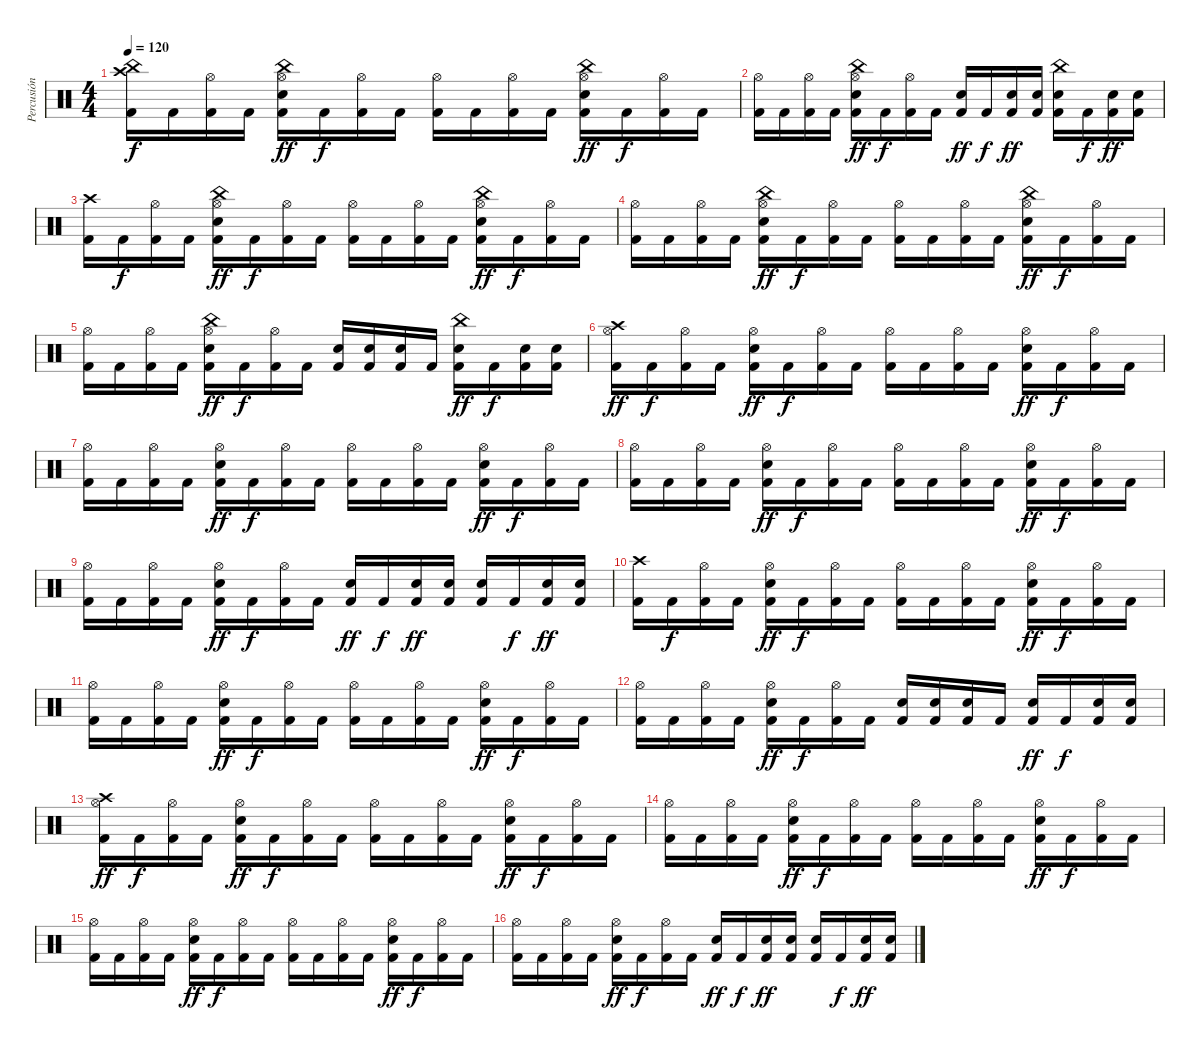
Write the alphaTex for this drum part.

\track ("Percusión" "Percusión") {instrument percussion}
\staff {score}
\articulation defaults
\ts (4 4)
\tempo 120
\clef neutral
\ks c
("Crash high (hit)" "China (hit)" "Kick (hit) 2").16{dy f} "Kick (hit) 2".16 ("Hi-Hat (open)" "Kick (hit) 2").16 "Kick (hit) 2".16 ("Hi-Hat (open)" "Electric Snare (hit)" "China (hit)" "Kick (hit) 2").16{dy ff} "Kick (hit) 2".16{dy f} ("Hi-Hat (open)" "Kick (hit) 2").16 "Kick (hit) 2".16 ("Hi-Hat (open)" "Kick (hit) 2").16 "Kick (hit) 2".16 ("Hi-Hat (open)" "Kick (hit) 2").16 "Kick (hit) 2".16 ("Hi-Hat (open)" "Electric Snare (hit)" "China (hit)" "Kick (hit) 2").16{dy ff} "Kick (hit) 2".16{dy f} ("Hi-Hat (open)" "Kick (hit) 2").16 "Kick (hit) 2".16 |
("Hi-Hat (open)" "Kick (hit) 2").16 "Kick (hit) 2".16 ("Hi-Hat (open)" "Kick (hit) 2").16 "Kick (hit) 2".16 ("Hi-Hat (open)" "Electric Snare (hit)" "China (hit)" "Kick (hit) 2").16{dy ff} "Kick (hit) 2".16{dy f} ("Hi-Hat (open)" "Kick (hit) 2").16 "Kick (hit) 2".16 ("Electric Snare (hit)" "Kick (hit) 2").16{dy ff} "Kick (hit) 2".16{dy f} ("Electric Snare (hit)" "Kick (hit) 2").16{dy ff} ("Electric Snare (hit)" "Kick (hit) 2").16 ("Electric Snare (hit)" "China (hit)" "Kick (hit) 2").16 "Kick (hit) 2".16{dy f} ("Electric Snare (hit)" "Kick (hit) 2").16{dy ff} ("Electric Snare (hit)" "Kick (hit) 2").16 |
("Crash high (hit)" "Kick (hit) 2").16 "Kick (hit) 2".16{dy f} ("Hi-Hat (open)" "Kick (hit) 2").16 "Kick (hit) 2".16 ("Hi-Hat (open)" "Electric Snare (hit)" "China (hit)" "Kick (hit) 2").16{dy ff} "Kick (hit) 2".16{dy f} ("Hi-Hat (open)" "Kick (hit) 2").16 "Kick (hit) 2".16 ("Hi-Hat (open)" "Kick (hit) 2").16 "Kick (hit) 2".16 ("Hi-Hat (open)" "Kick (hit) 2").16 "Kick (hit) 2".16 ("Hi-Hat (open)" "Electric Snare (hit)" "China (hit)" "Kick (hit) 2").16{dy ff} "Kick (hit) 2".16{dy f} ("Hi-Hat (open)" "Kick (hit) 2").16 "Kick (hit) 2".16 |
("Hi-Hat (open)" "Kick (hit) 2").16 "Kick (hit) 2".16 ("Hi-Hat (open)" "Kick (hit) 2").16 "Kick (hit) 2".16 ("Hi-Hat (open)" "Electric Snare (hit)" "China (hit)" "Kick (hit) 2").16{dy ff} "Kick (hit) 2".16{dy f} ("Hi-Hat (open)" "Kick (hit) 2").16 "Kick (hit) 2".16 ("Hi-Hat (open)" "Kick (hit) 2").16 "Kick (hit) 2".16 ("Hi-Hat (open)" "Kick (hit) 2").16 "Kick (hit) 2".16 ("Hi-Hat (open)" "Electric Snare (hit)" "China (hit)" "Kick (hit) 2").16{dy ff} "Kick (hit) 2".16{dy f} ("Hi-Hat (open)" "Kick (hit) 2").16 "Kick (hit) 2".16 |
("Hi-Hat (open)" "Kick (hit) 2").16 "Kick (hit) 2".16 ("Hi-Hat (open)" "Kick (hit) 2").16 "Kick (hit) 2".16 ("Hi-Hat (open)" "Electric Snare (hit)" "China (hit)" "Kick (hit) 2").16{dy ff} "Kick (hit) 2".16{dy f} ("Hi-Hat (open)" "Kick (hit) 2").16 "Kick (hit) 2".16 ("Electric Snare (hit)" "Kick (hit) 2").16 ("Electric Snare (hit)" "Kick (hit) 2").16 ("Electric Snare (hit)" "Kick (hit) 2").16 "Kick (hit) 2".16 ("Electric Snare (hit)" "China (hit)" "Kick (hit) 2").16{dy ff} "Kick (hit) 2".16{dy f} ("Electric Snare (hit)" "Kick (hit) 2").16 ("Electric Snare (hit)" "Kick (hit) 2").16 |
("Hi-Hat (open)" "Crash high (hit)" "Kick (hit) 2").16{dy ff} "Kick (hit) 2".16{dy f} ("Hi-Hat (open)" "Kick (hit) 2").16 "Kick (hit) 2".16 ("Hi-Hat (open)" "Electric Snare (hit)" "Kick (hit) 2").16{dy ff} "Kick (hit) 2".16{dy f} ("Hi-Hat (open)" "Kick (hit) 2").16 "Kick (hit) 2".16 ("Hi-Hat (open)" "Kick (hit) 2").16 "Kick (hit) 2".16 ("Hi-Hat (open)" "Kick (hit) 2").16 "Kick (hit) 2".16 ("Hi-Hat (open)" "Electric Snare (hit)" "Kick (hit) 2").16{dy ff} "Kick (hit) 2".16{dy f} ("Hi-Hat (open)" "Kick (hit) 2").16 "Kick (hit) 2".16 |
("Hi-Hat (open)" "Kick (hit) 2").16 "Kick (hit) 2".16 ("Hi-Hat (open)" "Kick (hit) 2").16 "Kick (hit) 2".16 ("Hi-Hat (open)" "Electric Snare (hit)" "Kick (hit) 2").16{dy ff} "Kick (hit) 2".16{dy f} ("Hi-Hat (open)" "Kick (hit) 2").16 "Kick (hit) 2".16 ("Hi-Hat (open)" "Kick (hit) 2").16 "Kick (hit) 2".16 ("Hi-Hat (open)" "Kick (hit) 2").16 "Kick (hit) 2".16 ("Hi-Hat (open)" "Electric Snare (hit)" "Kick (hit) 2").16{dy ff} "Kick (hit) 2".16{dy f} ("Hi-Hat (open)" "Kick (hit) 2").16 "Kick (hit) 2".16 |
("Hi-Hat (open)" "Kick (hit) 2").16 "Kick (hit) 2".16 ("Hi-Hat (open)" "Kick (hit) 2").16 "Kick (hit) 2".16 ("Hi-Hat (open)" "Electric Snare (hit)" "Kick (hit) 2").16{dy ff} "Kick (hit) 2".16{dy f} ("Hi-Hat (open)" "Kick (hit) 2").16 "Kick (hit) 2".16 ("Hi-Hat (open)" "Kick (hit) 2").16 "Kick (hit) 2".16 ("Hi-Hat (open)" "Kick (hit) 2").16 "Kick (hit) 2".16 ("Hi-Hat (open)" "Electric Snare (hit)" "Kick (hit) 2").16{dy ff} "Kick (hit) 2".16{dy f} ("Hi-Hat (open)" "Kick (hit) 2").16 "Kick (hit) 2".16 |
("Hi-Hat (open)" "Kick (hit) 2").16 "Kick (hit) 2".16 ("Hi-Hat (open)" "Kick (hit) 2").16 "Kick (hit) 2".16 ("Hi-Hat (open)" "Electric Snare (hit)" "Kick (hit) 2").16{dy ff} "Kick (hit) 2".16{dy f} ("Hi-Hat (open)" "Kick (hit) 2").16 "Kick (hit) 2".16 ("Electric Snare (hit)" "Kick (hit) 2").16{dy ff} "Kick (hit) 2".16{dy f} ("Electric Snare (hit)" "Kick (hit) 2").16{dy ff} ("Electric Snare (hit)" "Kick (hit) 2").16 ("Electric Snare (hit)" "Kick (hit) 2").16 "Kick (hit) 2".16{dy f} ("Electric Snare (hit)" "Kick (hit) 2").16{dy ff} ("Electric Snare (hit)" "Kick (hit) 2").16 |
("Crash high (hit)" "Kick (hit) 2").16 "Kick (hit) 2".16{dy f} ("Hi-Hat (open)" "Kick (hit) 2").16 "Kick (hit) 2".16 ("Hi-Hat (open)" "Electric Snare (hit)" "Kick (hit) 2").16{dy ff} "Kick (hit) 2".16{dy f} ("Hi-Hat (open)" "Kick (hit) 2").16 "Kick (hit) 2".16 ("Hi-Hat (open)" "Kick (hit) 2").16 "Kick (hit) 2".16 ("Hi-Hat (open)" "Kick (hit) 2").16 "Kick (hit) 2".16 ("Hi-Hat (open)" "Electric Snare (hit)" "Kick (hit) 2").16{dy ff} "Kick (hit) 2".16{dy f} ("Hi-Hat (open)" "Kick (hit) 2").16 "Kick (hit) 2".16 |
("Hi-Hat (open)" "Kick (hit) 2").16 "Kick (hit) 2".16 ("Hi-Hat (open)" "Kick (hit) 2").16 "Kick (hit) 2".16 ("Hi-Hat (open)" "Electric Snare (hit)" "Kick (hit) 2").16{dy ff} "Kick (hit) 2".16{dy f} ("Hi-Hat (open)" "Kick (hit) 2").16 "Kick (hit) 2".16 ("Hi-Hat (open)" "Kick (hit) 2").16 "Kick (hit) 2".16 ("Hi-Hat (open)" "Kick (hit) 2").16 "Kick (hit) 2".16 ("Hi-Hat (open)" "Electric Snare (hit)" "Kick (hit) 2").16{dy ff} "Kick (hit) 2".16{dy f} ("Hi-Hat (open)" "Kick (hit) 2").16 "Kick (hit) 2".16 |
("Hi-Hat (open)" "Kick (hit) 2").16 "Kick (hit) 2".16 ("Hi-Hat (open)" "Kick (hit) 2").16 "Kick (hit) 2".16 ("Hi-Hat (open)" "Electric Snare (hit)" "Kick (hit) 2").16{dy ff} "Kick (hit) 2".16{dy f} ("Hi-Hat (open)" "Kick (hit) 2").16 "Kick (hit) 2".16 ("Electric Snare (hit)" "Kick (hit) 2").16 ("Electric Snare (hit)" "Kick (hit) 2").16 ("Electric Snare (hit)" "Kick (hit) 2").16 "Kick (hit) 2".16 ("Electric Snare (hit)" "Kick (hit) 2").16{dy ff} "Kick (hit) 2".16{dy f} ("Electric Snare (hit)" "Kick (hit) 2").16 ("Electric Snare (hit)" "Kick (hit) 2").16 |
("Hi-Hat (open)" "Crash high (hit)" "Kick (hit) 2").16{dy ff} "Kick (hit) 2".16{dy f} ("Hi-Hat (open)" "Kick (hit) 2").16 "Kick (hit) 2".16 ("Hi-Hat (open)" "Electric Snare (hit)" "Kick (hit) 2").16{dy ff} "Kick (hit) 2".16{dy f} ("Hi-Hat (open)" "Kick (hit) 2").16 "Kick (hit) 2".16 ("Hi-Hat (open)" "Kick (hit) 2").16 "Kick (hit) 2".16 ("Hi-Hat (open)" "Kick (hit) 2").16 "Kick (hit) 2".16 ("Hi-Hat (open)" "Electric Snare (hit)" "Kick (hit) 2").16{dy ff} "Kick (hit) 2".16{dy f} ("Hi-Hat (open)" "Kick (hit) 2").16 "Kick (hit) 2".16 |
("Hi-Hat (open)" "Kick (hit) 2").16 "Kick (hit) 2".16 ("Hi-Hat (open)" "Kick (hit) 2").16 "Kick (hit) 2".16 ("Hi-Hat (open)" "Electric Snare (hit)" "Kick (hit) 2").16{dy ff} "Kick (hit) 2".16{dy f} ("Hi-Hat (open)" "Kick (hit) 2").16 "Kick (hit) 2".16 ("Hi-Hat (open)" "Kick (hit) 2").16 "Kick (hit) 2".16 ("Hi-Hat (open)" "Kick (hit) 2").16 "Kick (hit) 2".16 ("Hi-Hat (open)" "Electric Snare (hit)" "Kick (hit) 2").16{dy ff} "Kick (hit) 2".16{dy f} ("Hi-Hat (open)" "Kick (hit) 2").16 "Kick (hit) 2".16 |
("Hi-Hat (open)" "Kick (hit) 2").16 "Kick (hit) 2".16 ("Hi-Hat (open)" "Kick (hit) 2").16 "Kick (hit) 2".16 ("Hi-Hat (open)" "Electric Snare (hit)" "Kick (hit) 2").16{dy ff} "Kick (hit) 2".16{dy f} ("Hi-Hat (open)" "Kick (hit) 2").16 "Kick (hit) 2".16 ("Hi-Hat (open)" "Kick (hit) 2").16 "Kick (hit) 2".16 ("Hi-Hat (open)" "Kick (hit) 2").16 "Kick (hit) 2".16 ("Hi-Hat (open)" "Electric Snare (hit)" "Kick (hit) 2").16{dy ff} "Kick (hit) 2".16{dy f} ("Hi-Hat (open)" "Kick (hit) 2").16 "Kick (hit) 2".16 |
("Hi-Hat (open)" "Kick (hit) 2").16 "Kick (hit) 2".16 ("Hi-Hat (open)" "Kick (hit) 2").16 "Kick (hit) 2".16 ("Hi-Hat (open)" "Electric Snare (hit)" "Kick (hit) 2").16{dy ff} "Kick (hit) 2".16{dy f} ("Hi-Hat (open)" "Kick (hit) 2").16 "Kick (hit) 2".16 ("Electric Snare (hit)" "Kick (hit) 2").16{dy ff} "Kick (hit) 2".16{dy f} ("Electric Snare (hit)" "Kick (hit) 2").16{dy ff} ("Electric Snare (hit)" "Kick (hit) 2").16 ("Electric Snare (hit)" "Kick (hit) 2").16 "Kick (hit) 2".16{dy f} ("Electric Snare (hit)" "Kick (hit) 2").16{dy ff} ("Electric Snare (hit)" "Kick (hit) 2").16
